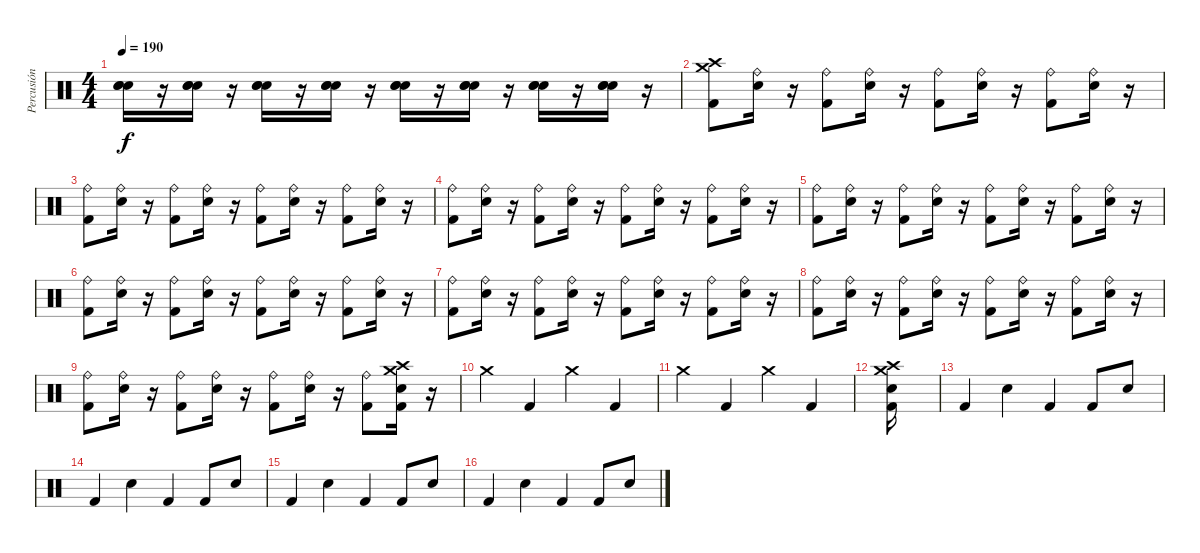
\track ("Percusión" "Percusión") {instrument percussion}
\staff {score}
\articulation defaults
\ts (4 4)
\tempo 190
\clef neutral
\ks c
("Snare (hit) 2" "Snare (hit) 2" "Snare (hit) 2").16{dy f} r.16 ("Snare (hit) 2" "Snare (hit) 2" "Snare (hit) 2").16 r.16 ("Snare (hit) 2" "Snare (hit) 2" "Snare (hit) 2").16 r.16 ("Snare (hit) 2" "Snare (hit) 2" "Snare (hit) 2").16 r.16 ("Snare (hit) 2" "Snare (hit) 2" "Snare (hit) 2").16 r.16 ("Snare (hit) 2" "Snare (hit) 2" "Snare (hit) 2").16 r.16 ("Snare (hit) 2" "Snare (hit) 2" "Snare (hit) 2").16 r.16 ("Snare (hit) 2" "Snare (hit) 2" "Snare (hit) 2").16 r.16 |
("Kick (hit) 2" "Crash medium (hit)" "Crash high (hit)").8 ("Snare (hit) 2" "Ride (bell)").16 r.16 ("Kick (hit) 2" "Ride (bell)").8 ("Snare (hit) 2" "Ride (bell)").16 r.16 ("Kick (hit) 2" "Ride (bell)").8 ("Snare (hit) 2" "Ride (bell)").16 r.16 ("Kick (hit) 2" "Ride (bell)").8 ("Snare (hit) 2" "Ride (bell)").16 r.16 |
("Kick (hit) 2" "Ride (bell)").8 ("Snare (hit) 2" "Ride (bell)").16 r.16 ("Kick (hit) 2" "Ride (bell)").8 ("Snare (hit) 2" "Ride (bell)").16 r.16 ("Kick (hit) 2" "Ride (bell)").8 ("Snare (hit) 2" "Ride (bell)").16 r.16 ("Kick (hit) 2" "Ride (bell)").8 ("Snare (hit) 2" "Ride (bell)").16 r.16 |
("Kick (hit) 2" "Ride (bell)").8 ("Snare (hit) 2" "Ride (bell)").16 r.16 ("Kick (hit) 2" "Ride (bell)").8 ("Snare (hit) 2" "Ride (bell)").16 r.16 ("Kick (hit) 2" "Ride (bell)").8 ("Snare (hit) 2" "Ride (bell)").16 r.16 ("Kick (hit) 2" "Ride (bell)").8 ("Snare (hit) 2" "Ride (bell)").16 r.16 |
("Kick (hit) 2" "Ride (bell)").8 ("Snare (hit) 2" "Ride (bell)").16 r.16 ("Kick (hit) 2" "Ride (bell)").8 ("Snare (hit) 2" "Ride (bell)").16 r.16 ("Kick (hit) 2" "Ride (bell)").8 ("Snare (hit) 2" "Ride (bell)").16 r.16 ("Kick (hit) 2" "Ride (bell)").8 ("Snare (hit) 2" "Ride (bell)").16 r.16 |
("Kick (hit) 2" "Ride (bell)").8 ("Snare (hit) 2" "Ride (bell)").16 r.16 ("Kick (hit) 2" "Ride (bell)").8 ("Snare (hit) 2" "Ride (bell)").16 r.16 ("Kick (hit) 2" "Ride (bell)").8 ("Snare (hit) 2" "Ride (bell)").16 r.16 ("Kick (hit) 2" "Ride (bell)").8 ("Snare (hit) 2" "Ride (bell)").16 r.16 |
("Kick (hit) 2" "Ride (bell)").8 ("Snare (hit) 2" "Ride (bell)").16 r.16 ("Kick (hit) 2" "Ride (bell)").8 ("Snare (hit) 2" "Ride (bell)").16 r.16 ("Kick (hit) 2" "Ride (bell)").8 ("Snare (hit) 2" "Ride (bell)").16 r.16 ("Kick (hit) 2" "Ride (bell)").8 ("Snare (hit) 2" "Ride (bell)").16 r.16 |
("Kick (hit) 2" "Ride (bell)").8 ("Snare (hit) 2" "Ride (bell)").16 r.16 ("Kick (hit) 2" "Ride (bell)").8 ("Snare (hit) 2" "Ride (bell)").16 r.16 ("Kick (hit) 2" "Ride (bell)").8 ("Snare (hit) 2" "Ride (bell)").16 r.16 ("Kick (hit) 2" "Ride (bell)").8 ("Snare (hit) 2" "Ride (bell)").16 r.16 |
("Kick (hit) 2" "Ride (bell)").8 ("Snare (hit) 2" "Ride (bell)").16 r.16 ("Kick (hit) 2" "Ride (bell)").8 ("Snare (hit) 2" "Ride (bell)").16 r.16 ("Kick (hit) 2" "Ride (bell)").8 ("Snare (hit) 2" "Ride (bell)").16 r.16 ("Kick (hit) 2" "Ride (bell)").8 ("Crash high (hit)" "Snare (hit) 2" "Crash medium (hit)" "Kick (hit) 2").16 r.16 |
"Crash medium (hit)".4 "Kick (hit) 2".4 "Crash medium (hit)".4 "Kick (hit) 2".4 |
"Crash medium (hit)".4 "Kick (hit) 2".4 "Crash medium (hit)".4 "Kick (hit) 2".4 |
("Crash high (hit)" "Snare (hit) 2" "Crash medium (hit)" "Kick (hit) 2").16 |
"Kick (hit) 2".4 "Snare (hit) 2".4 "Kick (hit) 2".4 "Kick (hit) 2".8 "Snare (hit) 2".8 |
"Kick (hit) 2".4 "Snare (hit) 2".4 "Kick (hit) 2".4 "Kick (hit) 2".8 "Snare (hit) 2".8 |
"Kick (hit) 2".4 "Snare (hit) 2".4 "Kick (hit) 2".4 "Kick (hit) 2".8 "Snare (hit) 2".8 |
"Kick (hit) 2".4 "Snare (hit) 2".4 "Kick (hit) 2".4 "Kick (hit) 2".8 "Snare (hit) 2".8
